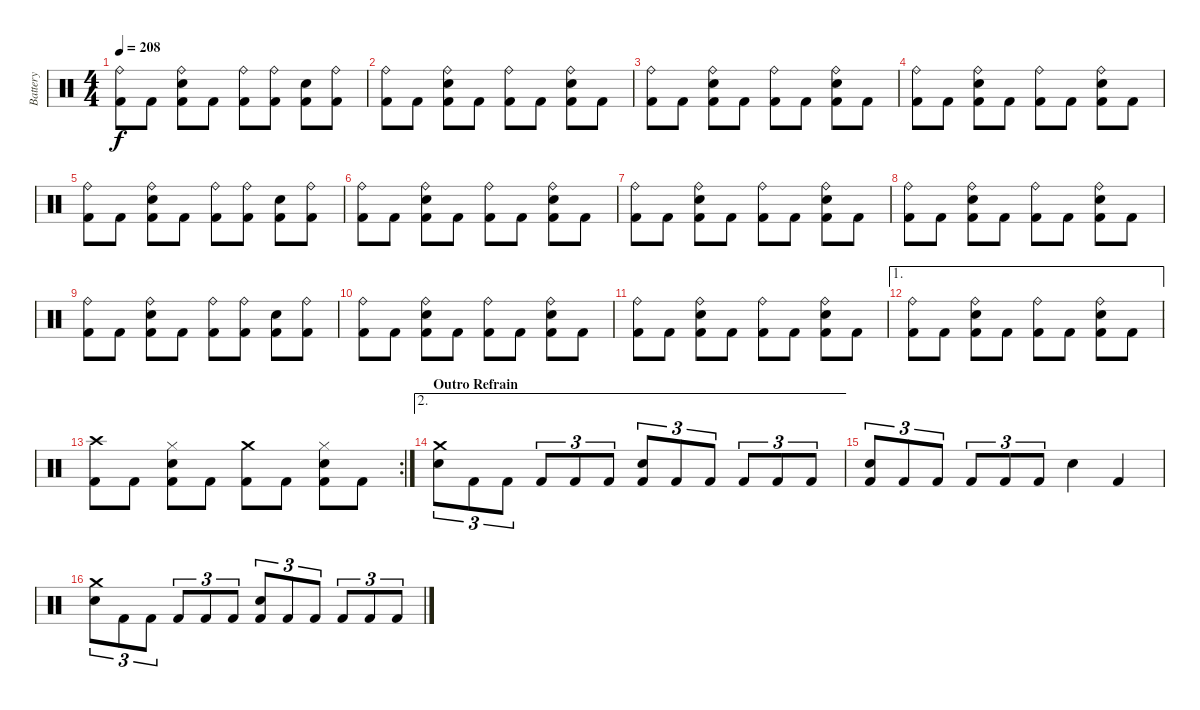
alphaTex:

\track ("Battery" "Battery") {instrument percussion}
\staff {score}
\articulation defaults
\ts (4 4)
\tempo 208
\clef neutral
\ks c
("Ride (bell)" "Kick (hit) 2").8{dy f} "Kick (hit) 2".8 ("Ride (bell)" "Electric Snare (hit)" "Kick (hit) 2").8 "Kick (hit) 2".8 ("Ride (bell)" "Kick (hit) 2").8 ("Ride (bell)" "Kick (hit) 2").8 ("Electric Snare (hit)" "Kick (hit) 2").8 ("Ride (bell)" "Kick (hit) 2").8 |
("Ride (bell)" "Kick (hit) 2").8 "Kick (hit) 2".8 ("Ride (bell)" "Electric Snare (hit)" "Kick (hit) 2").8 "Kick (hit) 2".8 ("Ride (bell)" "Kick (hit) 2").8 "Kick (hit) 2".8 ("Ride (bell)" "Electric Snare (hit)" "Kick (hit) 2").8 "Kick (hit) 2".8 |
("Ride (bell)" "Kick (hit) 2").8 "Kick (hit) 2".8 ("Ride (bell)" "Electric Snare (hit)" "Kick (hit) 2").8 "Kick (hit) 2".8 ("Ride (bell)" "Kick (hit) 2").8 "Kick (hit) 2".8 ("Ride (bell)" "Electric Snare (hit)" "Kick (hit) 2").8 "Kick (hit) 2".8 |
("Ride (bell)" "Kick (hit) 2").8 "Kick (hit) 2".8 ("Ride (bell)" "Electric Snare (hit)" "Kick (hit) 2").8 "Kick (hit) 2".8 ("Ride (bell)" "Kick (hit) 2").8 "Kick (hit) 2".8 ("Ride (bell)" "Electric Snare (hit)" "Kick (hit) 2").8 "Kick (hit) 2".8 |
("Ride (bell)" "Kick (hit) 2").8 "Kick (hit) 2".8 ("Ride (bell)" "Electric Snare (hit)" "Kick (hit) 2").8 "Kick (hit) 2".8 ("Ride (bell)" "Kick (hit) 2").8 ("Ride (bell)" "Kick (hit) 2").8 ("Electric Snare (hit)" "Kick (hit) 2").8 ("Ride (bell)" "Kick (hit) 2").8 |
("Ride (bell)" "Kick (hit) 2").8 "Kick (hit) 2".8 ("Ride (bell)" "Electric Snare (hit)" "Kick (hit) 2").8 "Kick (hit) 2".8 ("Ride (bell)" "Kick (hit) 2").8 "Kick (hit) 2".8 ("Ride (bell)" "Electric Snare (hit)" "Kick (hit) 2").8 "Kick (hit) 2".8 |
("Ride (bell)" "Kick (hit) 2").8 "Kick (hit) 2".8 ("Ride (bell)" "Electric Snare (hit)" "Kick (hit) 2").8 "Kick (hit) 2".8 ("Ride (bell)" "Kick (hit) 2").8 "Kick (hit) 2".8 ("Ride (bell)" "Electric Snare (hit)" "Kick (hit) 2").8 "Kick (hit) 2".8 |
("Ride (bell)" "Kick (hit) 2").8 "Kick (hit) 2".8 ("Ride (bell)" "Electric Snare (hit)" "Kick (hit) 2").8 "Kick (hit) 2".8 ("Ride (bell)" "Kick (hit) 2").8 "Kick (hit) 2".8 ("Ride (bell)" "Electric Snare (hit)" "Kick (hit) 2").8 "Kick (hit) 2".8 |
("Ride (bell)" "Kick (hit) 2").8 "Kick (hit) 2".8 ("Ride (bell)" "Electric Snare (hit)" "Kick (hit) 2").8 "Kick (hit) 2".8 ("Ride (bell)" "Kick (hit) 2").8 ("Ride (bell)" "Kick (hit) 2").8 ("Electric Snare (hit)" "Kick (hit) 2").8 ("Ride (bell)" "Kick (hit) 2").8 |
("Ride (bell)" "Kick (hit) 2").8 "Kick (hit) 2".8 ("Ride (bell)" "Electric Snare (hit)" "Kick (hit) 2").8 "Kick (hit) 2".8 ("Ride (bell)" "Kick (hit) 2").8 "Kick (hit) 2".8 ("Ride (bell)" "Electric Snare (hit)" "Kick (hit) 2").8 "Kick (hit) 2".8 |
("Ride (bell)" "Kick (hit) 2").8 "Kick (hit) 2".8 ("Ride (bell)" "Electric Snare (hit)" "Kick (hit) 2").8 "Kick (hit) 2".8 ("Ride (bell)" "Kick (hit) 2").8 "Kick (hit) 2".8 ("Ride (bell)" "Electric Snare (hit)" "Kick (hit) 2").8 "Kick (hit) 2".8 |
\ae 1
("Ride (bell)" "Kick (hit) 2").8 "Kick (hit) 2".8 ("Ride (bell)" "Electric Snare (hit)" "Kick (hit) 2").8 "Kick (hit) 2".8 ("Ride (bell)" "Kick (hit) 2").8 "Kick (hit) 2".8 ("Ride (bell)" "Electric Snare (hit)" "Kick (hit) 2").8 "Kick (hit) 2".8 |
\rc 2
("Crash high (hit)" "Kick (hit) 2").8 "Kick (hit) 2".8 ("Hi-Hat (closed)" "Electric Snare (hit)" "Kick (hit) 2").8 "Kick (hit) 2".8 ("Crash medium (hit)" "Kick (hit) 2").8 "Kick (hit) 2".8 ("Hi-Hat (closed)" "Electric Snare (hit)" "Kick (hit) 2").8 "Kick (hit) 2".8 |
\ae 2
\section ("" "Outro Refrain")
("Crash medium (hit)" "Electric Snare (hit)").8{tu (3 2)} "Kick (hit) 2".8{tu (3 2)} "Kick (hit) 2".8{tu (3 2)} "Kick (hit) 2".8{tu (3 2)} "Kick (hit) 2".8{tu (3 2)} "Kick (hit) 2".8{tu (3 2)} ("Electric Snare (hit)" "Kick (hit) 2").8{tu (3 2)} "Kick (hit) 2".8{tu (3 2)} "Kick (hit) 2".8{tu (3 2)} "Kick (hit) 2".8{tu (3 2)} "Kick (hit) 2".8{tu (3 2)} "Kick (hit) 2".8{tu (3 2)} |
("Electric Snare (hit)" "Kick (hit) 2").8{tu (3 2)} "Kick (hit) 2".8{tu (3 2)} "Kick (hit) 2".8{tu (3 2)} "Kick (hit) 2".8{tu (3 2)} "Kick (hit) 2".8{tu (3 2)} "Kick (hit) 2".8{tu (3 2)} "Electric Snare (hit)".4 "Kick (hit) 2".4 |
("Crash medium (hit)" "Electric Snare (hit)").8{tu (3 2)} "Kick (hit) 2".8{tu (3 2)} "Kick (hit) 2".8{tu (3 2)} "Kick (hit) 2".8{tu (3 2)} "Kick (hit) 2".8{tu (3 2)} "Kick (hit) 2".8{tu (3 2)} ("Electric Snare (hit)" "Kick (hit) 2").8{tu (3 2)} "Kick (hit) 2".8{tu (3 2)} "Kick (hit) 2".8{tu (3 2)} "Kick (hit) 2".8{tu (3 2)} "Kick (hit) 2".8{tu (3 2)} "Kick (hit) 2".8{tu (3 2)}
